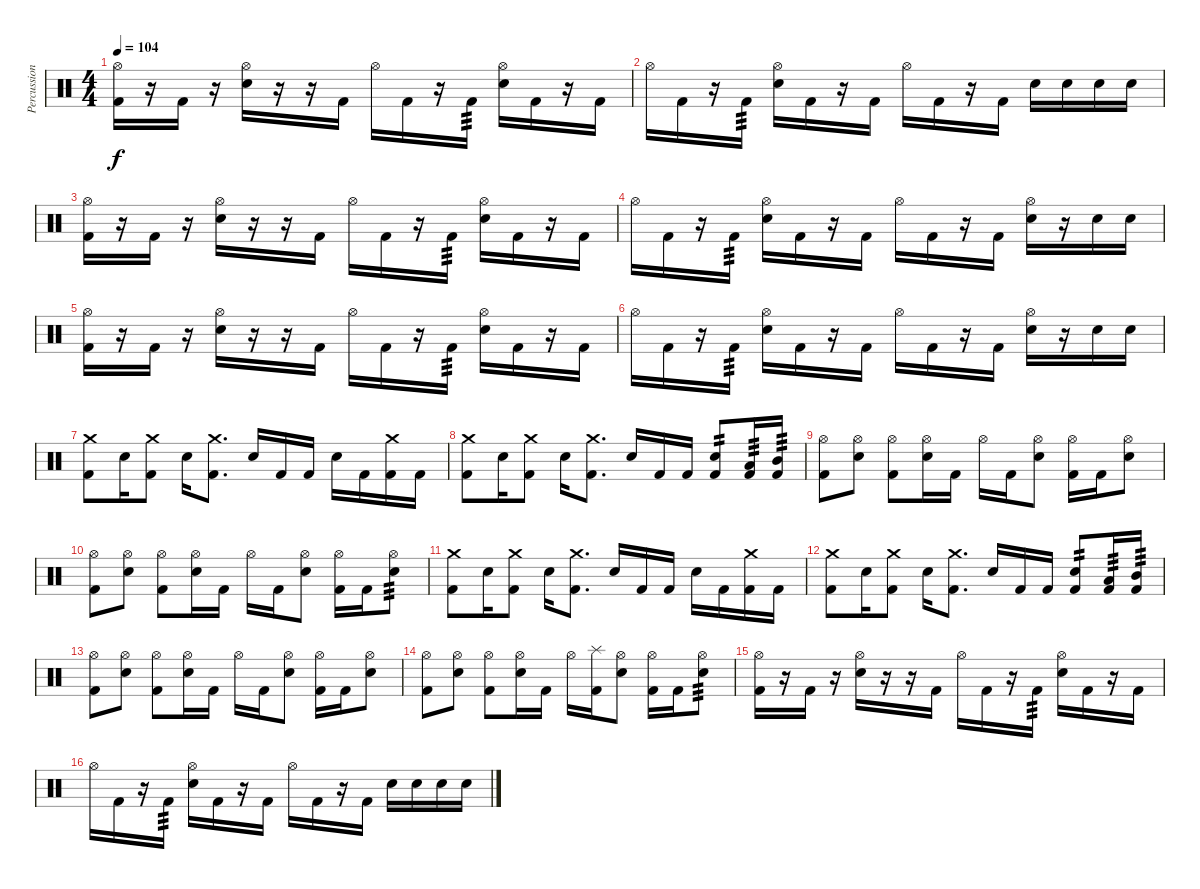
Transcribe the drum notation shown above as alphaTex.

\track ("Percussion" "Percussion") {instrument percussion}
\staff {score}
\articulation defaults
\ts (4 4)
\tempo 104
\clef neutral
\ks c
("Hi-Hat (open)" "Kick (hit) 2").16{dy f} r.16 "Kick (hit) 2".16 r.16 ("Hi-Hat (open)" "Snare (hit) 2").16 r.16 r.16 "Kick (hit) 2".16 "Hi-Hat (open)".16 "Kick (hit) 2".16 r.16 "Kick (hit) 2".16{tp 3} ("Hi-Hat (open)" "Snare (hit) 2").16 "Kick (hit) 2".16 r.16 "Kick (hit) 2".16 |
"Hi-Hat (open)".16 "Kick (hit) 2".16 r.16 "Kick (hit) 2".16{tp 3} ("Hi-Hat (open)" "Snare (hit) 2").16 "Kick (hit) 2".16 r.16 "Kick (hit) 2".16 "Hi-Hat (open)".16 "Kick (hit) 2".16 r.16 "Kick (hit) 2".16 "Snare (hit) 2".16 "Snare (hit) 2".16 "Snare (hit) 2".16 "Snare (hit) 2".16 |
("Hi-Hat (open)" "Kick (hit) 2").16 r.16 "Kick (hit) 2".16 r.16 ("Hi-Hat (open)" "Snare (hit) 2").16 r.16 r.16 "Kick (hit) 2".16 "Hi-Hat (open)".16 "Kick (hit) 2".16 r.16 "Kick (hit) 2".16{tp 3} ("Hi-Hat (open)" "Snare (hit) 2").16 "Kick (hit) 2".16 r.16 "Kick (hit) 2".16 |
"Hi-Hat (open)".16 "Kick (hit) 2".16 r.16 "Kick (hit) 2".16{tp 3} ("Hi-Hat (open)" "Snare (hit) 2").16 "Kick (hit) 2".16 r.16 "Kick (hit) 2".16 "Hi-Hat (open)".16 "Kick (hit) 2".16 r.16 "Kick (hit) 2".16 ("Hi-Hat (open)" "Snare (hit) 2").16 r.16 "Snare (hit) 2".16 "Snare (hit) 2".16 |
("Hi-Hat (open)" "Kick (hit) 2").16 r.16 "Kick (hit) 2".16 r.16 ("Hi-Hat (open)" "Snare (hit) 2").16 r.16 r.16 "Kick (hit) 2".16 "Hi-Hat (open)".16 "Kick (hit) 2".16 r.16 "Kick (hit) 2".16{tp 3} ("Hi-Hat (open)" "Snare (hit) 2").16 "Kick (hit) 2".16 r.16 "Kick (hit) 2".16 |
"Hi-Hat (open)".16 "Kick (hit) 2".16 r.16 "Kick (hit) 2".16{tp 3} ("Hi-Hat (open)" "Snare (hit) 2").16 "Kick (hit) 2".16 r.16 "Kick (hit) 2".16 "Hi-Hat (open)".16 "Kick (hit) 2".16 r.16 "Kick (hit) 2".16 ("Hi-Hat (open)" "Snare (hit) 2").16 r.16 "Snare (hit) 2".16 "Snare (hit) 2".16 |
("Crash medium (hit)" "Kick (hit) 2").8 "Snare (hit) 2".16 ("Crash medium (hit)" "Kick (hit) 2").8 "Snare (hit) 2".16 ("Crash medium (hit)" "Kick (hit) 2").8{d} "Snare (hit) 2".16 "Kick (hit) 2".16 "Kick (hit) 2".16 "Snare (hit) 2".16 "Kick (hit) 2".16 ("Crash medium (hit)" "Kick (hit) 2").16 "Kick (hit) 2".16 |
("Crash medium (hit)" "Kick (hit) 2").8 "Snare (hit) 2".16 ("Crash medium (hit)" "Kick (hit) 2").8 "Snare (hit) 2".16 ("Crash medium (hit)" "Kick (hit) 2").8{d} "Snare (hit) 2".16 "Kick (hit) 2".16 "Kick (hit) 2".16 ("Snare (hit) 2" "Kick (hit) 2").8{tp 2} ("Low Tom (hit)" "Kick (hit) 2").16{tp 3} ("Mid Tom (hit)" "Kick (hit) 2").16{tp 3} |
("Hi-Hat (open)" "Kick (hit) 2").8 ("Hi-Hat (open)" "Snare (hit) 2").8 ("Hi-Hat (open)" "Kick (hit) 2").8 ("Hi-Hat (open)" "Snare (hit) 2").16 "Kick (hit) 2".16 "Hi-Hat (open)".16 "Kick (hit) 2".16 ("Hi-Hat (open)" "Snare (hit) 2").8 ("Hi-Hat (open)" "Kick (hit) 2").16 "Kick (hit) 2".16 ("Hi-Hat (open)" "Snare (hit) 2").8 |
("Hi-Hat (open)" "Kick (hit) 2").8 ("Hi-Hat (open)" "Snare (hit) 2").8 ("Hi-Hat (open)" "Kick (hit) 2").8 ("Hi-Hat (open)" "Snare (hit) 2").16 "Kick (hit) 2".16 "Hi-Hat (open)".16 "Kick (hit) 2".16 ("Hi-Hat (open)" "Snare (hit) 2").8 ("Hi-Hat (open)" "Kick (hit) 2").16 "Kick (hit) 2".16 ("Hi-Hat (open)" "Snare (hit) 2").8{tp 3} |
("Crash medium (hit)" "Kick (hit) 2").8 "Snare (hit) 2".16 ("Crash medium (hit)" "Kick (hit) 2").8 "Snare (hit) 2".16 ("Crash medium (hit)" "Kick (hit) 2").8{d} "Snare (hit) 2".16 "Kick (hit) 2".16 "Kick (hit) 2".16 "Snare (hit) 2".16 "Kick (hit) 2".16 ("Crash medium (hit)" "Kick (hit) 2").16 "Kick (hit) 2".16 |
("Crash medium (hit)" "Kick (hit) 2").8 "Snare (hit) 2".16 ("Crash medium (hit)" "Kick (hit) 2").8 "Snare (hit) 2".16 ("Crash medium (hit)" "Kick (hit) 2").8{d} "Snare (hit) 2".16 "Kick (hit) 2".16 "Kick (hit) 2".16 ("Snare (hit) 2" "Kick (hit) 2").8{tp 2} ("Low Tom (hit)" "Kick (hit) 2").16{tp 3} ("Mid Tom (hit)" "Kick (hit) 2").16{tp 3} |
("Hi-Hat (open)" "Kick (hit) 2").8 ("Hi-Hat (open)" "Snare (hit) 2").8 ("Hi-Hat (open)" "Kick (hit) 2").8 ("Hi-Hat (open)" "Snare (hit) 2").16 "Kick (hit) 2".16 "Hi-Hat (open)".16 "Kick (hit) 2".16 ("Hi-Hat (open)" "Snare (hit) 2").8 ("Hi-Hat (open)" "Kick (hit) 2").16 "Kick (hit) 2".16 ("Hi-Hat (open)" "Snare (hit) 2").8 |
("Hi-Hat (open)" "Kick (hit) 2").8 ("Hi-Hat (open)" "Snare (hit) 2").8 ("Hi-Hat (open)" "Kick (hit) 2").8 ("Hi-Hat (open)" "Snare (hit) 2").16 "Kick (hit) 2".16 "Hi-Hat (open)".16 ("Splash (hit)" "Kick (hit) 2").16 ("Hi-Hat (open)" "Snare (hit) 2").8 ("Hi-Hat (open)" "Kick (hit) 2").16 "Kick (hit) 2".16 ("Hi-Hat (open)" "Snare (hit) 2").8{tp 3} |
("Hi-Hat (open)" "Kick (hit) 2").16 r.16 "Kick (hit) 2".16 r.16 ("Hi-Hat (open)" "Snare (hit) 2").16 r.16 r.16 "Kick (hit) 2".16 "Hi-Hat (open)".16 "Kick (hit) 2".16 r.16 "Kick (hit) 2".16{tp 3} ("Hi-Hat (open)" "Snare (hit) 2").16 "Kick (hit) 2".16 r.16 "Kick (hit) 2".16 |
"Hi-Hat (open)".16 "Kick (hit) 2".16 r.16 "Kick (hit) 2".16{tp 3} ("Hi-Hat (open)" "Snare (hit) 2").16 "Kick (hit) 2".16 r.16 "Kick (hit) 2".16 "Hi-Hat (open)".16 "Kick (hit) 2".16 r.16 "Kick (hit) 2".16 "Snare (hit) 2".16 "Snare (hit) 2".16 "Snare (hit) 2".16 "Snare (hit) 2".16
